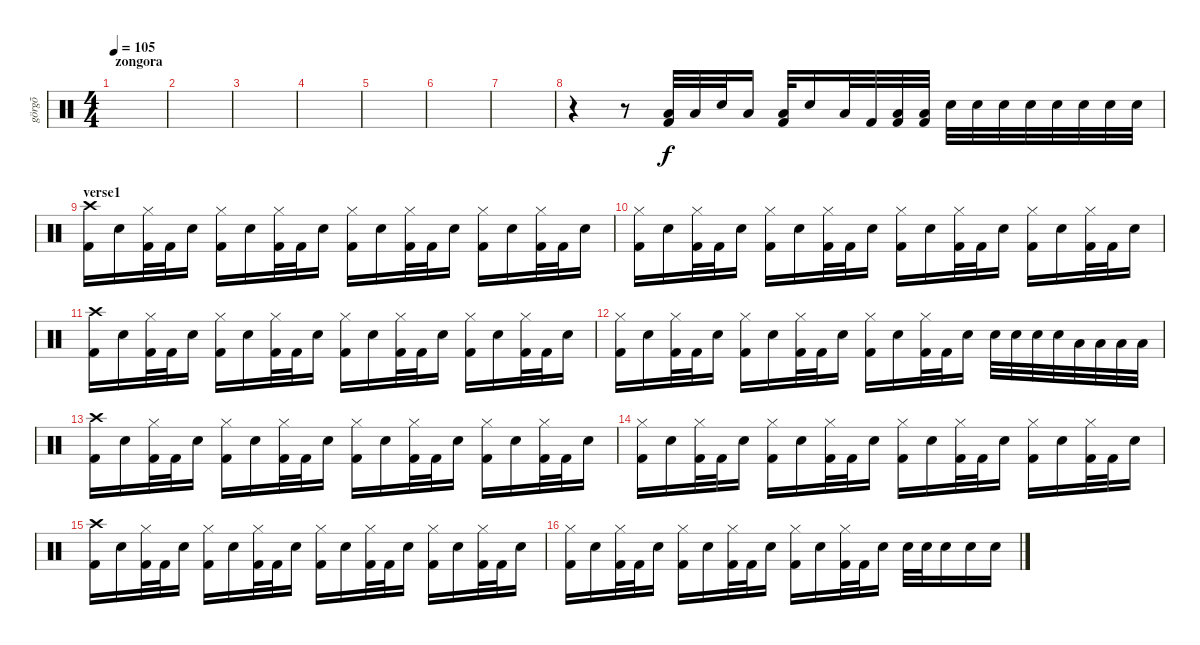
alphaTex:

\track ("görgõ" "görgõ") {instrument percussion}
\staff {score}
\articulation defaults
\ts (4 4)
\section ("" "zongora")
\tempo 105
\clef neutral
\ks c
|
|
|
|
|
|
|
r.4 r.8 ("Kick (hit) 2" "Low Tom (hit)").32 "Low Tom (hit)".32 "Snare (hit) 2".32 "Low Tom (hit)".16 ("Kick (hit) 2" "Low Tom (hit)").32 "Snare (hit) 2".16 "Low Tom (hit)".32 "Kick (hit) 2".32 ("Kick (hit) 2" "Low Tom (hit)").32 ("Kick (hit) 2" "Low Tom (hit)").32 "Snare (hit) 2".32 "Snare (hit) 2".32 "Snare (hit) 2".32 "Snare (hit) 2".32 "Snare (hit) 2".32 "Snare (hit) 2".32 "Snare (hit) 2".32 "Snare (hit) 2".32 |
\section ("" "verse1")
("Crash high (hit)" "Kick (hit) 2").16 "Snare (hit) 2".16 ("Hi-Hat (closed)" "Kick (hit) 2").32 "Kick (hit) 2".32 "Snare (hit) 2".16 ("Hi-Hat (closed)" "Kick (hit) 2").16 "Snare (hit) 2".16 ("Hi-Hat (closed)" "Kick (hit) 2").32 "Kick (hit) 2".32 "Snare (hit) 2".16 ("Hi-Hat (closed)" "Kick (hit) 2").16 "Snare (hit) 2".16 ("Hi-Hat (closed)" "Kick (hit) 2").32 "Kick (hit) 2".32 "Snare (hit) 2".16 ("Hi-Hat (closed)" "Kick (hit) 2").16 "Snare (hit) 2".16 ("Hi-Hat (closed)" "Kick (hit) 2").32 "Kick (hit) 2".32 "Snare (hit) 2".16 |
("Hi-Hat (closed)" "Kick (hit) 2").16 "Snare (hit) 2".16 ("Hi-Hat (closed)" "Kick (hit) 2").32 "Kick (hit) 2".32 "Snare (hit) 2".16 ("Hi-Hat (closed)" "Kick (hit) 2").16 "Snare (hit) 2".16 ("Hi-Hat (closed)" "Kick (hit) 2").32 "Kick (hit) 2".32 "Snare (hit) 2".16 ("Hi-Hat (closed)" "Kick (hit) 2").16 "Snare (hit) 2".16 ("Hi-Hat (closed)" "Kick (hit) 2").32 "Kick (hit) 2".32 "Snare (hit) 2".16 ("Hi-Hat (closed)" "Kick (hit) 2").16 "Snare (hit) 2".16 ("Hi-Hat (closed)" "Kick (hit) 2").32 "Kick (hit) 2".32 "Snare (hit) 2".16 |
("Crash high (hit)" "Kick (hit) 2").16 "Snare (hit) 2".16 ("Hi-Hat (closed)" "Kick (hit) 2").32 "Kick (hit) 2".32 "Snare (hit) 2".16 ("Hi-Hat (closed)" "Kick (hit) 2").16 "Snare (hit) 2".16 ("Hi-Hat (closed)" "Kick (hit) 2").32 "Kick (hit) 2".32 "Snare (hit) 2".16 ("Hi-Hat (closed)" "Kick (hit) 2").16 "Snare (hit) 2".16 ("Hi-Hat (closed)" "Kick (hit) 2").32 "Kick (hit) 2".32 "Snare (hit) 2".16 ("Hi-Hat (closed)" "Kick (hit) 2").16 "Snare (hit) 2".16 ("Hi-Hat (closed)" "Kick (hit) 2").32 "Kick (hit) 2".32 "Snare (hit) 2".16 |
("Hi-Hat (closed)" "Kick (hit) 2").16 "Snare (hit) 2".16 ("Hi-Hat (closed)" "Kick (hit) 2").32 "Kick (hit) 2".32 "Snare (hit) 2".16 ("Hi-Hat (closed)" "Kick (hit) 2").16 "Snare (hit) 2".16 ("Hi-Hat (closed)" "Kick (hit) 2").32 "Kick (hit) 2".32 "Snare (hit) 2".16 ("Hi-Hat (closed)" "Kick (hit) 2").16 "Snare (hit) 2".16 ("Hi-Hat (closed)" "Kick (hit) 2").32 "Kick (hit) 2".32 "Snare (hit) 2".16 "Snare (hit) 2".32 "Snare (hit) 2".32 "Snare (hit) 2".32 "Snare (hit) 2".32 "Low Tom (hit)".32 "Low Tom (hit)".32 "Low Tom (hit)".32 "Low Tom (hit)".32 |
("Crash high (hit)" "Kick (hit) 2").16 "Snare (hit) 2".16 ("Hi-Hat (closed)" "Kick (hit) 2").32 "Kick (hit) 2".32 "Snare (hit) 2".16 ("Hi-Hat (closed)" "Kick (hit) 2").16 "Snare (hit) 2".16 ("Hi-Hat (closed)" "Kick (hit) 2").32 "Kick (hit) 2".32 "Snare (hit) 2".16 ("Hi-Hat (closed)" "Kick (hit) 2").16 "Snare (hit) 2".16 ("Hi-Hat (closed)" "Kick (hit) 2").32 "Kick (hit) 2".32 "Snare (hit) 2".16 ("Hi-Hat (closed)" "Kick (hit) 2").16 "Snare (hit) 2".16 ("Hi-Hat (closed)" "Kick (hit) 2").32 "Kick (hit) 2".32 "Snare (hit) 2".16 |
("Hi-Hat (closed)" "Kick (hit) 2").16 "Snare (hit) 2".16 ("Hi-Hat (closed)" "Kick (hit) 2").32 "Kick (hit) 2".32 "Snare (hit) 2".16 ("Hi-Hat (closed)" "Kick (hit) 2").16 "Snare (hit) 2".16 ("Hi-Hat (closed)" "Kick (hit) 2").32 "Kick (hit) 2".32 "Snare (hit) 2".16 ("Hi-Hat (closed)" "Kick (hit) 2").16 "Snare (hit) 2".16 ("Hi-Hat (closed)" "Kick (hit) 2").32 "Kick (hit) 2".32 "Snare (hit) 2".16 ("Hi-Hat (closed)" "Kick (hit) 2").16 "Snare (hit) 2".16 ("Hi-Hat (closed)" "Kick (hit) 2").32 "Kick (hit) 2".32 "Snare (hit) 2".16 |
("Crash high (hit)" "Kick (hit) 2").16 "Snare (hit) 2".16 ("Hi-Hat (closed)" "Kick (hit) 2").32 "Kick (hit) 2".32 "Snare (hit) 2".16 ("Hi-Hat (closed)" "Kick (hit) 2").16 "Snare (hit) 2".16 ("Hi-Hat (closed)" "Kick (hit) 2").32 "Kick (hit) 2".32 "Snare (hit) 2".16 ("Hi-Hat (closed)" "Kick (hit) 2").16 "Snare (hit) 2".16 ("Hi-Hat (closed)" "Kick (hit) 2").32 "Kick (hit) 2".32 "Snare (hit) 2".16 ("Hi-Hat (closed)" "Kick (hit) 2").16 "Snare (hit) 2".16 ("Hi-Hat (closed)" "Kick (hit) 2").32 "Kick (hit) 2".32 "Snare (hit) 2".16 |
("Hi-Hat (closed)" "Kick (hit) 2").16 "Snare (hit) 2".16 ("Hi-Hat (closed)" "Kick (hit) 2").32 "Kick (hit) 2".32 "Snare (hit) 2".16 ("Hi-Hat (closed)" "Kick (hit) 2").16 "Snare (hit) 2".16 ("Hi-Hat (closed)" "Kick (hit) 2").32 "Kick (hit) 2".32 "Snare (hit) 2".16 ("Hi-Hat (closed)" "Kick (hit) 2").16 "Snare (hit) 2".16 ("Hi-Hat (closed)" "Kick (hit) 2").32 "Kick (hit) 2".32 "Snare (hit) 2".16 "Snare (hit) 2".32 "Snare (hit) 2".32 "Snare (hit) 2".16 "Snare (hit) 2".16 "Snare (hit) 2".16
